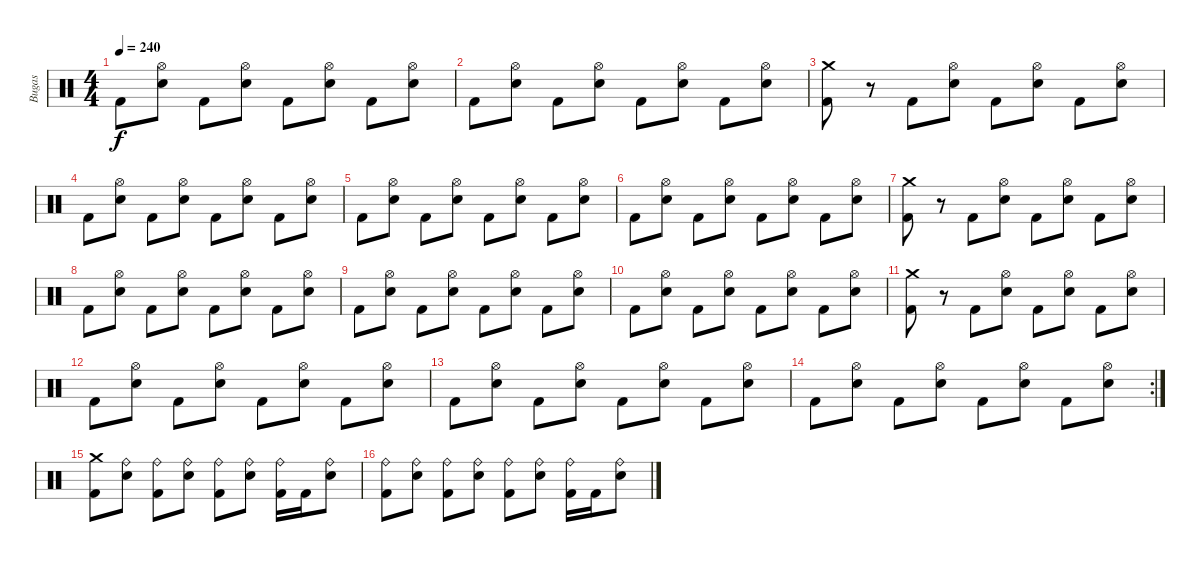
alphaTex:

\track ("Bugas" "Bugas") {instrument percussion}
\staff {score}
\articulation defaults
\ts (4 4)
\tempo 240
\clef neutral
\ks c "Kick (hit) 2".8{dy f}
("Hi-Hat (open)" "Electric Snare (hit)").8 "Kick (hit) 2".8 ("Hi-Hat (open)" "Electric Snare (hit)").8 "Kick (hit) 2".8 ("Hi-Hat (open)" "Electric Snare (hit)").8 "Kick (hit) 2".8 ("Hi-Hat (open)" "Electric Snare (hit)").8 |
"Kick (hit) 2".8 ("Hi-Hat (open)" "Electric Snare (hit)").8 "Kick (hit) 2".8 ("Hi-Hat (open)" "Electric Snare (hit)").8 "Kick (hit) 2".8 ("Hi-Hat (open)" "Electric Snare (hit)").8 "Kick (hit) 2".8 ("Hi-Hat (open)" "Electric Snare (hit)").8 |
("Crash medium (hit)" "Kick (hit) 2").8 r.8 "Kick (hit) 2".8 ("Hi-Hat (open)" "Electric Snare (hit)").8 "Kick (hit) 2".8 ("Hi-Hat (open)" "Electric Snare (hit)").8 "Kick (hit) 2".8 ("Hi-Hat (open)" "Electric Snare (hit)").8 |
"Kick (hit) 2".8 ("Hi-Hat (open)" "Electric Snare (hit)").8 "Kick (hit) 2".8 ("Hi-Hat (open)" "Electric Snare (hit)").8 "Kick (hit) 2".8 ("Hi-Hat (open)" "Electric Snare (hit)").8 "Kick (hit) 2".8 ("Hi-Hat (open)" "Electric Snare (hit)").8 |
"Kick (hit) 2".8 ("Hi-Hat (open)" "Electric Snare (hit)").8 "Kick (hit) 2".8 ("Hi-Hat (open)" "Electric Snare (hit)").8 "Kick (hit) 2".8 ("Hi-Hat (open)" "Electric Snare (hit)").8 "Kick (hit) 2".8 ("Hi-Hat (open)" "Electric Snare (hit)").8 |
"Kick (hit) 2".8 ("Hi-Hat (open)" "Electric Snare (hit)").8 "Kick (hit) 2".8 ("Hi-Hat (open)" "Electric Snare (hit)").8 "Kick (hit) 2".8 ("Hi-Hat (open)" "Electric Snare (hit)").8 "Kick (hit) 2".8 ("Hi-Hat (open)" "Electric Snare (hit)").8 |
("Crash medium (hit)" "Kick (hit) 2").8 r.8 "Kick (hit) 2".8 ("Hi-Hat (open)" "Electric Snare (hit)").8 "Kick (hit) 2".8 ("Hi-Hat (open)" "Electric Snare (hit)").8 "Kick (hit) 2".8 ("Hi-Hat (open)" "Electric Snare (hit)").8 |
"Kick (hit) 2".8 ("Hi-Hat (open)" "Electric Snare (hit)").8 "Kick (hit) 2".8 ("Hi-Hat (open)" "Electric Snare (hit)").8 "Kick (hit) 2".8 ("Hi-Hat (open)" "Electric Snare (hit)").8 "Kick (hit) 2".8 ("Hi-Hat (open)" "Electric Snare (hit)").8 |
"Kick (hit) 2".8 ("Hi-Hat (open)" "Electric Snare (hit)").8 "Kick (hit) 2".8 ("Hi-Hat (open)" "Electric Snare (hit)").8 "Kick (hit) 2".8 ("Hi-Hat (open)" "Electric Snare (hit)").8 "Kick (hit) 2".8 ("Hi-Hat (open)" "Electric Snare (hit)").8 |
"Kick (hit) 2".8 ("Hi-Hat (open)" "Electric Snare (hit)").8 "Kick (hit) 2".8 ("Hi-Hat (open)" "Electric Snare (hit)").8 "Kick (hit) 2".8 ("Hi-Hat (open)" "Electric Snare (hit)").8 "Kick (hit) 2".8 ("Hi-Hat (open)" "Electric Snare (hit)").8 |
("Crash medium (hit)" "Kick (hit) 2").8 r.8 "Kick (hit) 2".8 ("Hi-Hat (open)" "Electric Snare (hit)").8 "Kick (hit) 2".8 ("Hi-Hat (open)" "Electric Snare (hit)").8 "Kick (hit) 2".8 ("Hi-Hat (open)" "Electric Snare (hit)").8 |
"Kick (hit) 2".8 ("Hi-Hat (open)" "Electric Snare (hit)").8 "Kick (hit) 2".8 ("Hi-Hat (open)" "Electric Snare (hit)").8 "Kick (hit) 2".8 ("Hi-Hat (open)" "Electric Snare (hit)").8 "Kick (hit) 2".8 ("Hi-Hat (open)" "Electric Snare (hit)").8 |
"Kick (hit) 2".8 ("Hi-Hat (open)" "Electric Snare (hit)").8 "Kick (hit) 2".8 ("Hi-Hat (open)" "Electric Snare (hit)").8 "Kick (hit) 2".8 ("Hi-Hat (open)" "Electric Snare (hit)").8 "Kick (hit) 2".8 ("Hi-Hat (open)" "Electric Snare (hit)").8 |
\rc 2 "Kick (hit) 2".8
("Hi-Hat (open)" "Electric Snare (hit)").8 "Kick (hit) 2".8 ("Hi-Hat (open)" "Electric Snare (hit)").8 "Kick (hit) 2".8 ("Hi-Hat (open)" "Electric Snare (hit)").8 "Kick (hit) 2".8 ("Hi-Hat (open)" "Electric Snare (hit)").8 |
("Crash medium (hit)" "Kick (hit) 2").8 ("Ride (bell)" "Electric Snare (hit)").8 ("Ride (bell)" "Kick (hit) 2").8 ("Ride (bell)" "Electric Snare (hit)").8 ("Ride (bell)" "Kick (hit) 2").8 ("Ride (bell)" "Electric Snare (hit)").8 ("Ride (bell)" "Kick (hit) 2").16 "Kick (hit) 2".16 ("Ride (bell)" "Electric Snare (hit)").8 |
("Ride (bell)" "Kick (hit) 2").8 ("Ride (bell)" "Electric Snare (hit)").8 ("Ride (bell)" "Kick (hit) 2").8 ("Ride (bell)" "Electric Snare (hit)").8 ("Ride (bell)" "Kick (hit) 2").8 ("Ride (bell)" "Electric Snare (hit)").8 ("Ride (bell)" "Kick (hit) 2").16 "Kick (hit) 2".16 ("Ride (bell)" "Electric Snare (hit)").8
